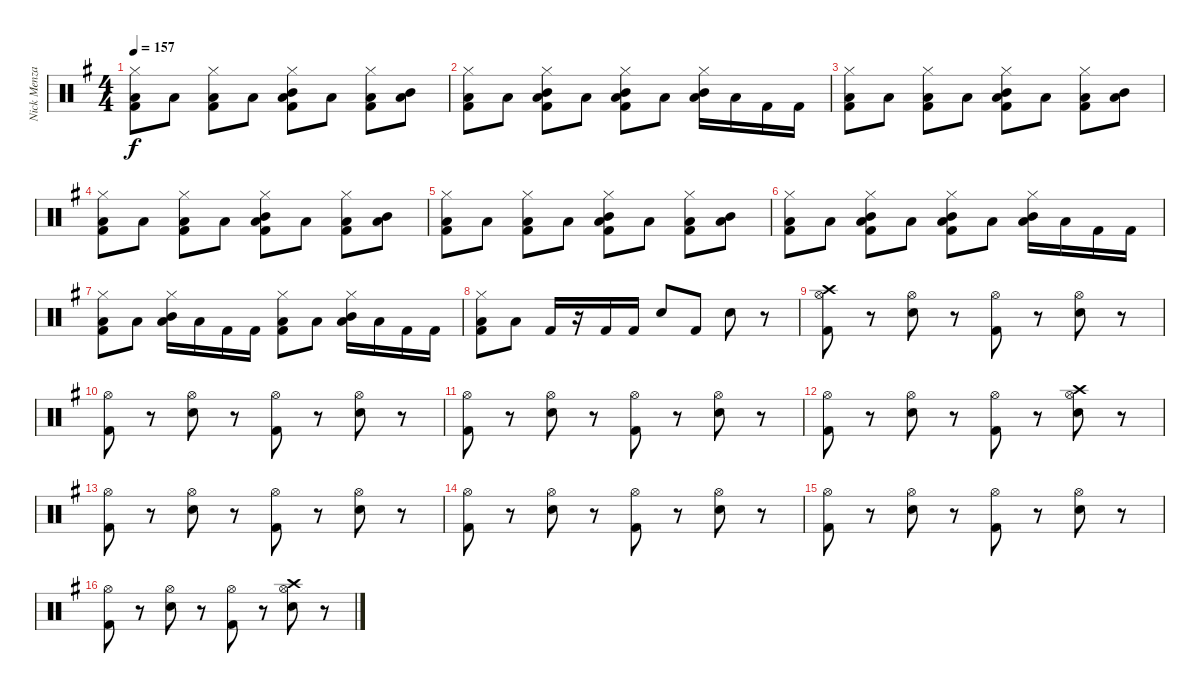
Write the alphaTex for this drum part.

\track ("Nick Menza" "Nick Menza") {instrument percussion}
\staff {score}
\articulation defaults
\ts (4 4)
\tempo 157
\clef neutral
\ks g
("Hi-Hat (closed)" "Low Floor Tom (hit)" "Kick (hit) 2").8{dy f} "Low Floor Tom (hit)".8 ("Hi-Hat (closed)" "Low Floor Tom (hit)" "Kick (hit) 2").8 "Low Floor Tom (hit)".8 ("Hi-Hat (closed)" "Low Floor Tom (hit)" "Kick (hit) 2" "Mid Tom (hit)").8 "Low Floor Tom (hit)".8 ("Hi-Hat (closed)" "Low Floor Tom (hit)" "Kick (hit) 2").8 ("Low Floor Tom (hit)" "Mid Tom (hit)").8 |
("Hi-Hat (closed)" "Low Floor Tom (hit)" "Kick (hit) 2").8 "Low Floor Tom (hit)".8 ("Hi-Hat (closed)" "Low Floor Tom (hit)" "Kick (hit) 2" "Mid Tom (hit)").8 "Low Floor Tom (hit)".8 ("Hi-Hat (closed)" "Low Floor Tom (hit)" "Kick (hit) 2" "Mid Tom (hit)").8 "Low Floor Tom (hit)".8 ("Hi-Hat (closed)" "Low Floor Tom (hit)" "Mid Tom (hit)").16 "Low Floor Tom (hit)".16 "Kick (hit) 2".16 "Kick (hit) 2".16 |
("Hi-Hat (closed)" "Low Floor Tom (hit)" "Kick (hit) 2").8 "Low Floor Tom (hit)".8 ("Hi-Hat (closed)" "Low Floor Tom (hit)" "Kick (hit) 2").8 "Low Floor Tom (hit)".8 ("Hi-Hat (closed)" "Low Floor Tom (hit)" "Kick (hit) 2" "Mid Tom (hit)").8 "Low Floor Tom (hit)".8 ("Hi-Hat (closed)" "Low Floor Tom (hit)" "Kick (hit) 2").8 ("Low Floor Tom (hit)" "Mid Tom (hit)").8 |
("Hi-Hat (closed)" "Low Floor Tom (hit)" "Kick (hit) 2").8 "Low Floor Tom (hit)".8 ("Hi-Hat (closed)" "Low Floor Tom (hit)" "Kick (hit) 2").8 "Low Floor Tom (hit)".8 ("Hi-Hat (closed)" "Low Floor Tom (hit)" "Kick (hit) 2" "Mid Tom (hit)").8 "Low Floor Tom (hit)".8 ("Hi-Hat (closed)" "Low Floor Tom (hit)" "Kick (hit) 2").8 ("Low Floor Tom (hit)" "Mid Tom (hit)").8 |
("Hi-Hat (closed)" "Low Floor Tom (hit)" "Kick (hit) 2").8 "Low Floor Tom (hit)".8 ("Hi-Hat (closed)" "Low Floor Tom (hit)" "Kick (hit) 2").8 "Low Floor Tom (hit)".8 ("Hi-Hat (closed)" "Low Floor Tom (hit)" "Kick (hit) 2" "Mid Tom (hit)").8 "Low Floor Tom (hit)".8 ("Hi-Hat (closed)" "Low Floor Tom (hit)" "Kick (hit) 2").8 ("Low Floor Tom (hit)" "Mid Tom (hit)").8 |
("Hi-Hat (closed)" "Low Floor Tom (hit)" "Kick (hit) 2").8 "Low Floor Tom (hit)".8 ("Hi-Hat (closed)" "Low Floor Tom (hit)" "Kick (hit) 2" "Mid Tom (hit)").8 "Low Floor Tom (hit)".8 ("Hi-Hat (closed)" "Low Floor Tom (hit)" "Kick (hit) 2" "Mid Tom (hit)").8 "Low Floor Tom (hit)".8 ("Hi-Hat (closed)" "Low Floor Tom (hit)" "Mid Tom (hit)").16 "Low Floor Tom (hit)".16 "Kick (hit) 2".16 "Kick (hit) 2".16 |
("Hi-Hat (closed)" "Low Floor Tom (hit)" "Kick (hit) 2").8 "Low Floor Tom (hit)".8 ("Hi-Hat (closed)" "Low Floor Tom (hit)" "Mid Tom (hit)").16 "Low Floor Tom (hit)".16 "Kick (hit) 2".16 "Kick (hit) 2".16 ("Hi-Hat (closed)" "Low Floor Tom (hit)" "Kick (hit) 2").8 "Low Floor Tom (hit)".8 ("Hi-Hat (closed)" "Low Floor Tom (hit)" "Mid Tom (hit)").16 "Low Floor Tom (hit)".16 "Kick (hit) 2".16 "Kick (hit) 2".16 |
("Hi-Hat (closed)" "Low Floor Tom (hit)" "Kick (hit) 2").8 "Low Floor Tom (hit)".8 "Kick (hit) 2".16 r.16 "Kick (hit) 2".16 "Kick (hit) 2".16 "Snare (hit) 2".8 "Kick (hit) 2".8 "Snare (hit) 2".8 r.8 |
("Hi-Hat (open)" "Kick (hit) 2" "Crash high (hit)").8 r.8 ("Hi-Hat (open)" "Snare (hit) 2").8 r.8 ("Hi-Hat (open)" "Kick (hit) 2").8 r.8 ("Hi-Hat (open)" "Snare (hit) 2").8 r.8 |
("Hi-Hat (open)" "Kick (hit) 2").8 r.8 ("Hi-Hat (open)" "Snare (hit) 2").8 r.8 ("Hi-Hat (open)" "Kick (hit) 2").8 r.8 ("Hi-Hat (open)" "Snare (hit) 2").8 r.8 |
("Hi-Hat (open)" "Kick (hit) 2").8 r.8 ("Hi-Hat (open)" "Snare (hit) 2").8 r.8 ("Hi-Hat (open)" "Kick (hit) 2").8 r.8 ("Hi-Hat (open)" "Snare (hit) 2").8 r.8 |
("Hi-Hat (open)" "Kick (hit) 2").8 r.8 ("Hi-Hat (open)" "Snare (hit) 2").8 r.8 ("Hi-Hat (open)" "Kick (hit) 2").8 r.8 ("Hi-Hat (open)" "Snare (hit) 2" "Crash high (hit)").8 r.8 |
("Hi-Hat (open)" "Kick (hit) 2").8 r.8 ("Hi-Hat (open)" "Snare (hit) 2").8 r.8 ("Hi-Hat (open)" "Kick (hit) 2").8 r.8 ("Hi-Hat (open)" "Snare (hit) 2").8 r.8 |
("Hi-Hat (open)" "Kick (hit) 2").8 r.8 ("Hi-Hat (open)" "Snare (hit) 2").8 r.8 ("Hi-Hat (open)" "Kick (hit) 2").8 r.8 ("Hi-Hat (open)" "Snare (hit) 2").8 r.8 |
("Hi-Hat (open)" "Kick (hit) 2").8 r.8 ("Hi-Hat (open)" "Snare (hit) 2").8 r.8 ("Hi-Hat (open)" "Kick (hit) 2").8 r.8 ("Hi-Hat (open)" "Snare (hit) 2").8 r.8 |
("Hi-Hat (open)" "Kick (hit) 2").8 r.8 ("Hi-Hat (open)" "Snare (hit) 2").8 r.8 ("Hi-Hat (open)" "Kick (hit) 2").8 r.8 ("Hi-Hat (open)" "Snare (hit) 2" "Crash high (hit)").8 r.8
